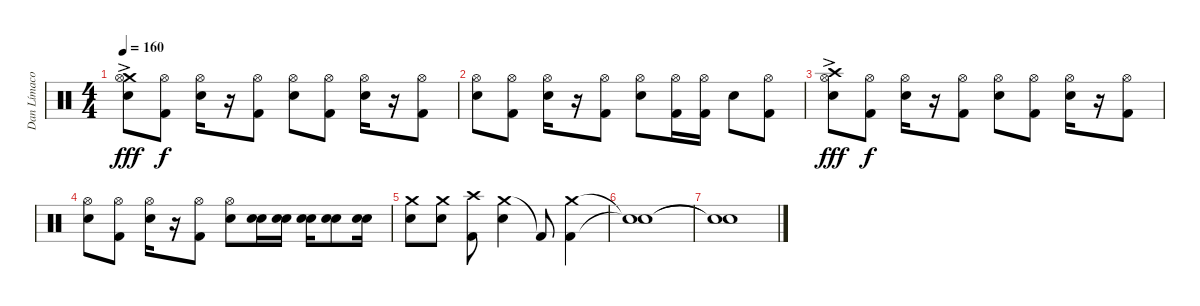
\track ("Dan Límaco" "Dan Límaco") {instrument percussion}
\staff {score}
\articulation defaults
\ts (4 4)
\tempo 160
\clef neutral
\ks c
("Crash medium (hit)"{ac} "Hi-Hat (open)" "Snare (hit) 2").8{dy fff volume 12} ("Hi-Hat (open)" "Kick (hit) 2").8{dy f} ("Hi-Hat (open)" "Snare (hit) 2").16 r.16 ("Hi-Hat (open)" "Kick (hit) 2").8 ("Hi-Hat (open)" "Snare (hit) 2").8 ("Hi-Hat (open)" "Kick (hit) 2").8 ("Hi-Hat (open)" "Snare (hit) 2").16 r.16 ("Hi-Hat (open)" "Kick (hit) 2").8 |
("Hi-Hat (open)" "Snare (hit) 2").8{volume 12} ("Hi-Hat (open)" "Kick (hit) 2").8 ("Hi-Hat (open)" "Snare (hit) 2").16 r.16 ("Hi-Hat (open)" "Kick (hit) 2").8 ("Hi-Hat (open)" "Snare (hit) 2").8 ("Hi-Hat (open)" "Kick (hit) 2").16 ("Hi-Hat (open)" "Kick (hit) 2").16 "Snare (hit) 2".8 ("Hi-Hat (open)" "Kick (hit) 2").8 |
("Crash high (hit)"{ac} "Hi-Hat (open)" "Snare (hit) 2").8{dy fff volume 12} ("Hi-Hat (open)" "Kick (hit) 2").8{dy f} ("Hi-Hat (open)" "Snare (hit) 2").16 r.16 ("Hi-Hat (open)" "Kick (hit) 2").8 ("Hi-Hat (open)" "Snare (hit) 2").8 ("Hi-Hat (open)" "Kick (hit) 2").8 ("Hi-Hat (open)" "Snare (hit) 2").16 r.16 ("Hi-Hat (open)" "Kick (hit) 2").8 |
("Hi-Hat (open)" "Snare (hit) 2").8 ("Hi-Hat (open)" "Kick (hit) 2").8 ("Hi-Hat (open)" "Snare (hit) 2").16 r.16 ("Hi-Hat (open)" "Kick (hit) 2").8 ("Hi-Hat (open)" "Snare (hit) 2").8 ("Snare (hit) 2" "Snare (hit) 2").16 ("Snare (hit) 2" "Snare (hit) 2").16 ("Snare (hit) 2" "Snare (hit) 2").16 ("Snare (hit) 2" "Snare (hit) 2").8 ("Snare (hit) 2" "Snare (hit) 2").16 |
("Crash medium (hit)" "Snare (hit) 2").8 ("Crash medium (hit)" "Snare (hit) 2").8 ("Crash high (hit)" "Kick (hit) 2").8 ("Crash medium (hit)" "Snare (hit) 2").4 "Kick (hit) 2"{t}.8 ("Crash medium (hit)" "Kick (hit) 2").4 |
("Snare (hit)"{t} "Snare (hit)"{t}).1 |
("Snare (hit)"{t} "Snare (hit)"{t}).1
